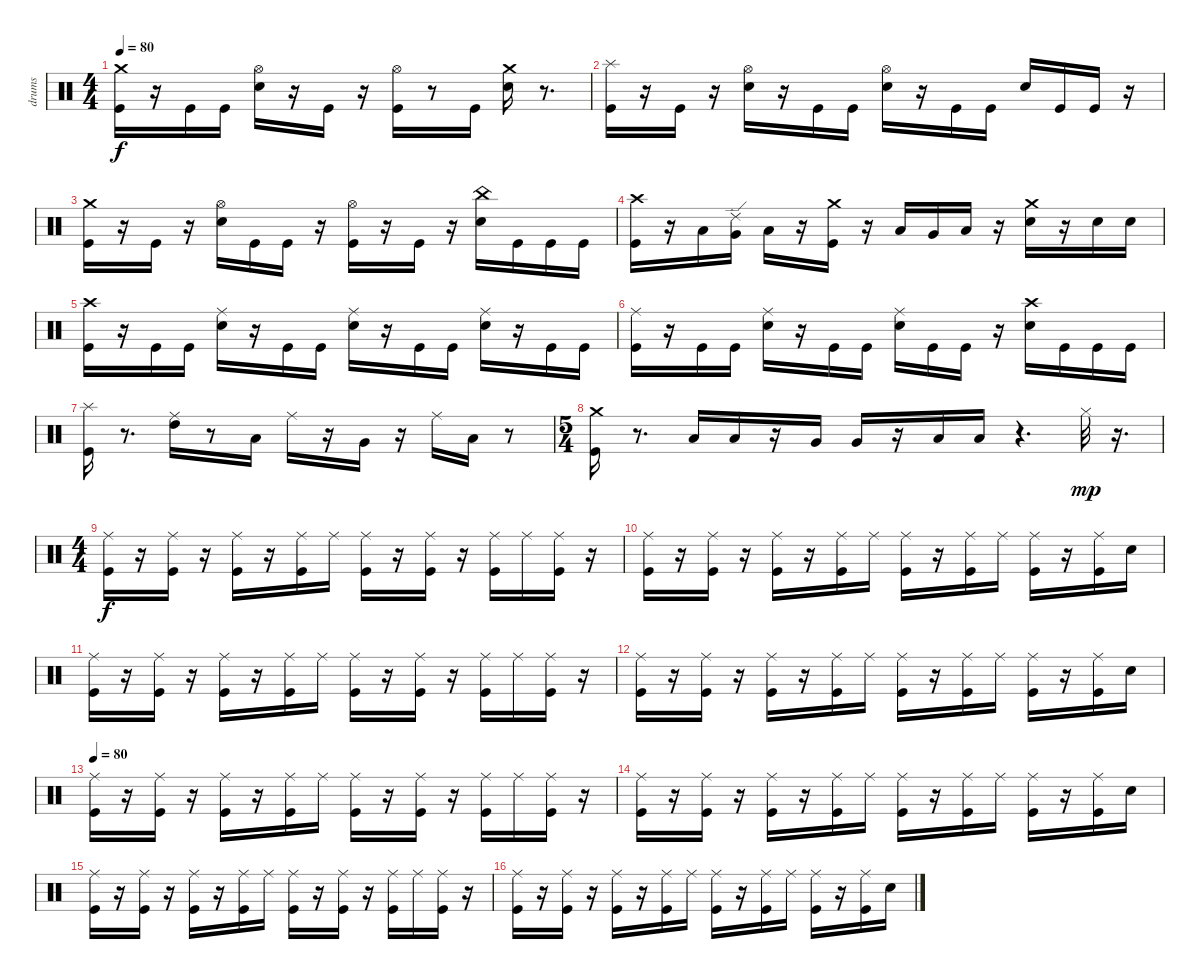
\track ("drums" "drums") {instrument percussion}
\staff {score}
\articulation defaults
\ts (4 4)
\tempo 80
\clef neutral
\ks c
("Kick (hit)" "Crash medium (hit)").16{dy f} r.16 "Kick (hit)".16 "Kick (hit)".16 ("Hi-Hat (open)" "Snare (hit) 2").16 r.16 "Kick (hit)".16 r.16 ("Hi-Hat (open)" "Kick (hit)").16 r.8 "Kick (hit)".16 ("Crash medium (hit)" "Snare (hit) 2").16 r.8{d} |
("Splash (hit)" "Kick (hit)").16 r.16 "Kick (hit)".16 r.16 ("Hi-Hat (open)" "Snare (hit) 2").16 r.16 "Kick (hit)".16 "Kick (hit)".16 ("Hi-Hat (open)" "Electric Snare (hit)").16 r.16 "Kick (hit)".16 "Kick (hit)".16 "Electric Snare (hit)".16 "Kick (hit)".16 "Kick (hit)".16 r.16 |
("Crash medium (hit)" "Kick (hit)").16 r.16 "Kick (hit)".16 r.16 ("Hi-Hat (open)" "Electric Snare (hit)").16 "Kick (hit)".16 "Kick (hit)".16 r.16 ("Hi-Hat (open)" "Kick (hit)").16 r.16 "Kick (hit)".16 r.16 ("China (hit)" "Electric Snare (hit)").16 "Kick (hit)".16 "Kick (hit)".16 "Kick (hit)".16 |
("Crash high (hit)" "Kick (hit)").16 r.16 "Low Tom (hit)".16 ("Very Low Tom (hit)" "Ride (edge) 2").16 "Low Floor Tom (hit)".16 r.16 ("Crash medium (hit)" "Kick (hit)").16 r.16 "Low Tom (hit)".16 "Very Low Tom (hit)".16 "Low Floor Tom (hit)".16 r.16 ("Electric Snare (hit)" "Crash medium (hit)").16 r.16 "Electric Snare (hit)".16 "Electric Snare (hit)".16 |
("Crash high (hit)" "Kick (hit)").16 r.16 "Kick (hit)".16 "Kick (hit)".16 ("Ride (middle)" "Electric Snare (hit)").16 r.16 "Kick (hit)".16 "Kick (hit)".16 ("Ride (middle)" "Electric Snare (hit)").16 r.16 "Kick (hit)".16 "Kick (hit)".16 ("Ride (middle)" "Electric Snare (hit)").16 r.16 "Kick (hit)".16 "Kick (hit)".16 |
("Ride (middle)" "Kick (hit)").16 r.16 "Kick (hit)".16 "Kick (hit)".16 ("Ride (middle)" "Electric Snare (hit)").16 r.16 "Kick (hit)".16 "Kick (hit)".16 ("Ride (middle)" "Electric Snare (hit)").16 "Kick (hit)".16 "Kick (hit)".16 r.16 ("Crash high (hit)" "Electric Snare (hit)").16 "Kick (hit)".16 "Kick (hit)".16 "Kick (hit)".16 |
("Kick (hit)" "Splash (hit)").16 r.8{d} ("Ride (middle)" "High Tom (hit)").16 r.8 "Low Tom (hit)".16 "Ride (middle)".16 r.16 "Very Low Tom (hit)".16 r.16 "Ride (middle)".16 "Low Floor Tom (hit)".16 r.8 |
\ts (5 4)
("Crash medium (hit)" "Kick (hit)").16 r.8{d} "Low Tom (hit)".16 "Low Tom (hit)".16 r.16 "Very Low Tom (hit)".16 "Very Low Tom (hit)".16 r.16 "Low Floor Tom (hit)".16 "Low Floor Tom (hit)".16 r.4{d} "Hi-Hat (closed)".32{dy mp} r.16{d} |
\ts (4 4)
("Ride (middle)" "Kick (hit)").16{dy f} r.16 ("Ride (middle)" "Kick (hit)").16 r.16 ("Ride (middle)" "Kick (hit)").16 r.16 ("Ride (middle)" "Kick (hit)").16 "Ride (middle)".16 ("Ride (middle)" "Kick (hit)").16 r.16 ("Ride (middle)" "Kick (hit)").16 r.16 ("Ride (middle)" "Kick (hit)").16 "Ride (middle)".16 ("Ride (middle)" "Kick (hit)").16 r.16 |
("Ride (middle)" "Kick (hit)").16 r.16 ("Ride (middle)" "Kick (hit)").16 r.16 ("Ride (middle)" "Kick (hit)").16 r.16 ("Ride (middle)" "Kick (hit)").16 "Ride (middle)".16 ("Ride (middle)" "Kick (hit)").16 r.16 ("Ride (middle)" "Kick (hit)").16 "Ride (middle)".16 ("Ride (middle)" "Kick (hit)").16 r.16 ("Kick (hit)" "Ride (middle)").16 "Electric Snare (hit)".16 |
("Ride (middle)" "Kick (hit)").16 r.16 ("Ride (middle)" "Kick (hit)").16 r.16 ("Ride (middle)" "Kick (hit)").16 r.16 ("Ride (middle)" "Kick (hit)").16 "Ride (middle)".16 ("Ride (middle)" "Kick (hit)").16 r.16 ("Ride (middle)" "Kick (hit)").16 r.16 ("Kick (hit)" "Ride (middle)").16 "Ride (middle)".16 ("Ride (middle)" "Kick (hit)").16 r.16 |
("Ride (middle)" "Kick (hit)").16 r.16 ("Ride (middle)" "Kick (hit)").16 r.16 ("Ride (middle)" "Kick (hit)").16 r.16 ("Ride (middle)" "Kick (hit)").16 "Ride (middle)".16 ("Ride (middle)" "Kick (hit)").16 r.16 ("Ride (middle)" "Kick (hit)").16 "Ride (middle)".16 ("Kick (hit)" "Ride (middle)").16 r.16 ("Ride (middle)" "Kick (hit)").16 "Electric Snare (hit)".16 |
\tempo 80
("Ride (middle)" "Kick (hit)").16 r.16 ("Ride (middle)" "Kick (hit)").16 r.16 ("Ride (middle)" "Kick (hit)").16 r.16 ("Ride (middle)" "Kick (hit)").16 "Ride (middle)".16 ("Ride (middle)" "Kick (hit)").16 r.16 ("Ride (middle)" "Kick (hit)").16 r.16 ("Ride (middle)" "Kick (hit)").16 "Ride (middle)".16 ("Ride (middle)" "Kick (hit)").16 r.16 |
("Ride (middle)" "Kick (hit)").16 r.16 ("Ride (middle)" "Kick (hit)").16 r.16 ("Ride (middle)" "Kick (hit)").16 r.16 ("Ride (middle)" "Kick (hit)").16 "Ride (middle)".16 ("Ride (middle)" "Kick (hit)").16 r.16 ("Ride (middle)" "Kick (hit)").16 "Ride (middle)".16 ("Ride (middle)" "Kick (hit)").16 r.16 ("Kick (hit)" "Ride (middle)").16 "Electric Snare (hit)".16 |
("Ride (middle)" "Kick (hit)").16 r.16 ("Ride (middle)" "Kick (hit)").16 r.16 ("Ride (middle)" "Kick (hit)").16 r.16 ("Ride (middle)" "Kick (hit)").16 "Ride (middle)".16 ("Ride (middle)" "Kick (hit)").16 r.16 ("Ride (middle)" "Kick (hit)").16 r.16 ("Kick (hit)" "Ride (middle)").16 "Ride (middle)".16 ("Ride (middle)" "Kick (hit)").16 r.16 |
("Ride (middle)" "Kick (hit)").16 r.16 ("Ride (middle)" "Kick (hit)").16 r.16 ("Ride (middle)" "Kick (hit)").16 r.16 ("Ride (middle)" "Kick (hit)").16 "Ride (middle)".16 ("Ride (middle)" "Kick (hit)").16 r.16 ("Ride (middle)" "Kick (hit)").16 "Ride (middle)".16 ("Kick (hit)" "Ride (middle)").16 r.16 ("Ride (middle)" "Kick (hit)").16 "Electric Snare (hit)".16
